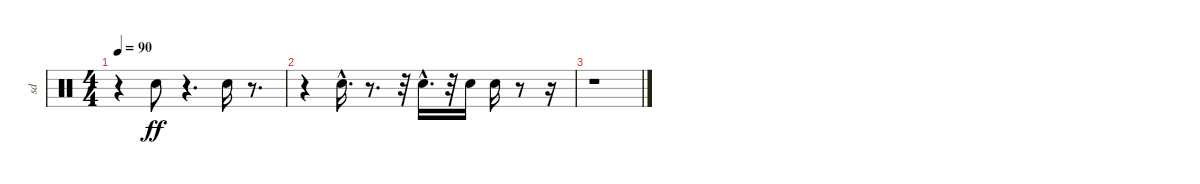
\track ("sd" "sd") {instrument percussion}
\staff {score}
\articulation defaults
\ts (4 4)
\tempo 90
\clef neutral
\ks c
r.4{dy ff} "Snare (hit) 2".8 r.4{d} "Snare (hit) 2".16 r.8{d} |
r.4 "Snare (hit) 2"{hac}.16{d} r.8{d} r.32 "Snare (hit) 2"{hac}.16{d} r.32 "Snare (hit) 2".16 "Snare (hit) 2".16 r.8 r.16 |
r.1
